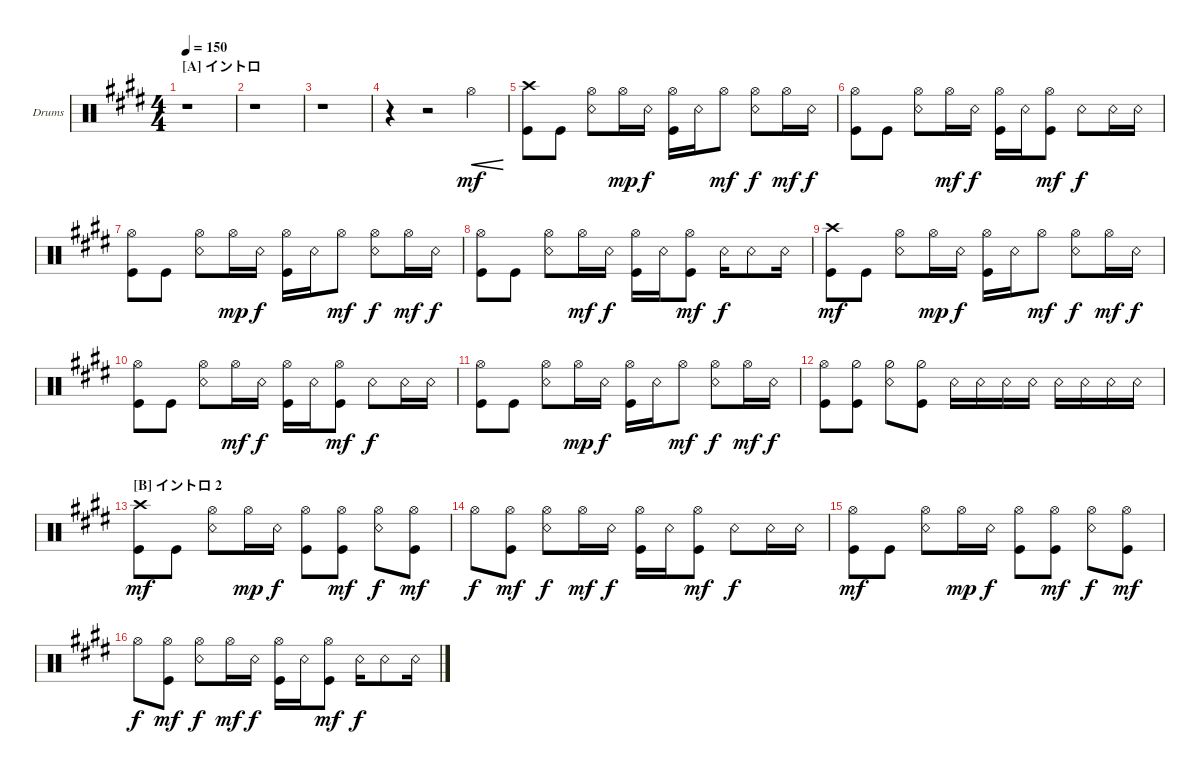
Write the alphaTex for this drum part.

\bracketExtendMode groupsimilarinstruments
\firstSystemTrackNameOrientation horizontal
\otherSystemsTrackNameOrientation horizontal
\track ("Ichigo" "Drums") {instrument percussion}
\staff {score}
\articulation defaults
\ts (4 4)
\section ("A" "イントロ")
\tempo 150
\clef neutral
\ks e
r.1{dy mf} |
r.1 |
r.1 |
r.4 r.2 "Hi-Hat (open)".4{cre} |
("Kick (hit)" "Crash high (hit)").8 "Kick (hit)".8 ("Snare (rim shot)" "Hi-Hat (open)").8 "Hi-Hat (open)".16{dy mp} "Snare (rim shot)".16{dy f} ("Kick (hit)" "Hi-Hat (open)").16 "Snare (rim shot)".16 "Hi-Hat (open)".8{dy mf} ("Hi-Hat (open)" "Snare (rim shot)").8{dy f} "Hi-Hat (open)".16{dy mf} "Snare (rim shot)".16{dy f} |
("Kick (hit)" "Hi-Hat (open)").8 "Kick (hit)".8 ("Snare (rim shot)" "Hi-Hat (open)").8 "Hi-Hat (open)".16{dy mf} "Snare (rim shot)".16{dy f} ("Kick (hit)" "Hi-Hat (open)").16 "Snare (rim shot)".16 ("Hi-Hat (open)" "Kick (hit)").8{dy mf} "Snare (rim shot)".8{dy f} "Snare (rim shot)".16 "Snare (rim shot)".16 |
("Kick (hit)" "Hi-Hat (open)").8 "Kick (hit)".8 ("Snare (rim shot)" "Hi-Hat (open)").8 "Hi-Hat (open)".16{dy mp} "Snare (rim shot)".16{dy f} ("Kick (hit)" "Hi-Hat (open)").16 "Snare (rim shot)".16 "Hi-Hat (open)".8{dy mf} ("Hi-Hat (open)" "Snare (rim shot)").8{dy f} "Hi-Hat (open)".16{dy mf} "Snare (rim shot)".16{dy f} |
("Kick (hit)" "Hi-Hat (open)").8 "Kick (hit)".8 ("Snare (rim shot)" "Hi-Hat (open)").8 "Hi-Hat (open)".16{dy mf} "Snare (rim shot)".16{dy f} ("Kick (hit)" "Hi-Hat (open)").16 "Snare (rim shot)".16 ("Hi-Hat (open)" "Kick (hit)").8{dy mf} "Snare (rim shot)".16{dy f} "Snare (rim shot)".8 "Snare (rim shot)".16 |
("Kick (hit)" "Crash high (hit)").8{dy mf} "Kick (hit)".8 ("Snare (rim shot)" "Hi-Hat (open)").8 "Hi-Hat (open)".16{dy mp} "Snare (rim shot)".16{dy f} ("Kick (hit)" "Hi-Hat (open)").16 "Snare (rim shot)".16 "Hi-Hat (open)".8{dy mf} ("Hi-Hat (open)" "Snare (rim shot)").8{dy f} "Hi-Hat (open)".16{dy mf} "Snare (rim shot)".16{dy f} |
("Kick (hit)" "Hi-Hat (open)").8 "Kick (hit)".8 ("Snare (rim shot)" "Hi-Hat (open)").8 "Hi-Hat (open)".16{dy mf} "Snare (rim shot)".16{dy f} ("Kick (hit)" "Hi-Hat (open)").16 "Snare (rim shot)".16 ("Hi-Hat (open)" "Kick (hit)").8{dy mf} "Snare (rim shot)".8{dy f} "Snare (rim shot)".16 "Snare (rim shot)".16 |
("Kick (hit)" "Hi-Hat (open)").8 "Kick (hit)".8 ("Snare (rim shot)" "Hi-Hat (open)").8 "Hi-Hat (open)".16{dy mp} "Snare (rim shot)".16{dy f} ("Kick (hit)" "Hi-Hat (open)").16 "Snare (rim shot)".16 "Hi-Hat (open)".8{dy mf} ("Hi-Hat (open)" "Snare (rim shot)").8{dy f} "Hi-Hat (open)".16{dy mf} "Snare (rim shot)".16{dy f} |
("Kick (hit)" "Hi-Hat (open)").8 ("Kick (hit)" "Hi-Hat (half)").8 ("Snare (rim shot)" "Hi-Hat (half)").8 ("Kick (hit)" "Hi-Hat (half)").8 "Snare (rim shot)".16 "Snare (rim shot)".16 "Snare (rim shot)".16 "Snare (rim shot)".16 "Snare (rim shot)".16 "Snare (rim shot)".16 "Snare (rim shot)".16 "Snare (rim shot)".16 |
\section ("B" "イントロ 2")
("Kick (hit)" "Crash high (hit)").8{dy mf} "Kick (hit)".8 ("Snare (rim shot)" "Hi-Hat (open)").8 "Hi-Hat (open)".16{dy mp} "Snare (rim shot)".16{dy f} ("Kick (hit)" "Hi-Hat (open)").8 ("Hi-Hat (open)" "Kick (hit)").8{dy mf} ("Hi-Hat (open)" "Snare (rim shot)").8{dy f} ("Hi-Hat (open)" "Kick (hit)").8{dy mf} |
"Hi-Hat (open)".8{dy f} ("Kick (hit)" "Hi-Hat (open)").8{dy mf} ("Snare (rim shot)" "Hi-Hat (open)").8{dy f} "Hi-Hat (open)".16{dy mf} "Snare (rim shot)".16{dy f} ("Kick (hit)" "Hi-Hat (open)").16 "Snare (rim shot)".16 ("Hi-Hat (open)" "Kick (hit)").8{dy mf} "Snare (rim shot)".8{dy f} "Snare (rim shot)".16 "Snare (rim shot)".16 |
("Kick (hit)" "Hi-Hat (open)").8{dy mf} "Kick (hit)".8 ("Snare (rim shot)" "Hi-Hat (open)").8 "Hi-Hat (open)".16{dy mp} "Snare (rim shot)".16{dy f} ("Kick (hit)" "Hi-Hat (open)").8 ("Hi-Hat (open)" "Kick (hit)").8{dy mf} ("Hi-Hat (open)" "Snare (rim shot)").8{dy f} ("Hi-Hat (open)" "Kick (hit)").8{dy mf} |
"Hi-Hat (open)".8{dy f} ("Kick (hit)" "Hi-Hat (open)").8{dy mf} ("Snare (rim shot)" "Hi-Hat (open)").8{dy f} "Hi-Hat (open)".16{dy mf} "Snare (rim shot)".16{dy f} ("Kick (hit)" "Hi-Hat (open)").16 "Snare (rim shot)".16 ("Hi-Hat (open)" "Kick (hit)").8{dy mf} "Snare (rim shot)".16{dy f} "Snare (rim shot)".8 "Snare (rim shot)".16
